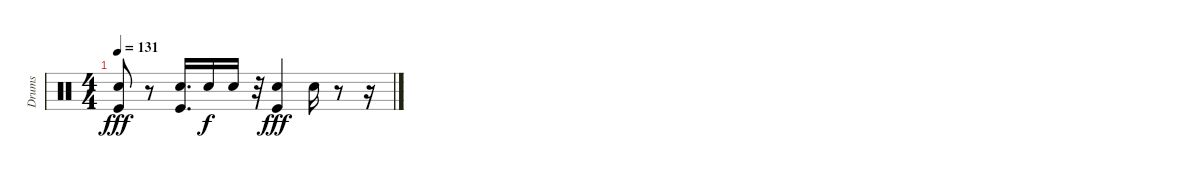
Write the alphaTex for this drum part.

\track ("Drums" "Drums") {instrument percussion}
\staff {score}
\articulation defaults
\ts (4 4)
\tempo 131
\clef neutral
\ks c
("Kick (hit)" "Snare (hit) 2").8{dy fff} r.8 ("Kick (hit)" "Snare (hit) 2").16{d} "Snare (hit) 2".16{dy f} "Snare (hit) 2".16 r.32 ("Kick (hit)" "Snare (hit) 2").4{dy fff} "Snare (hit) 2".16 r.8 r.16
